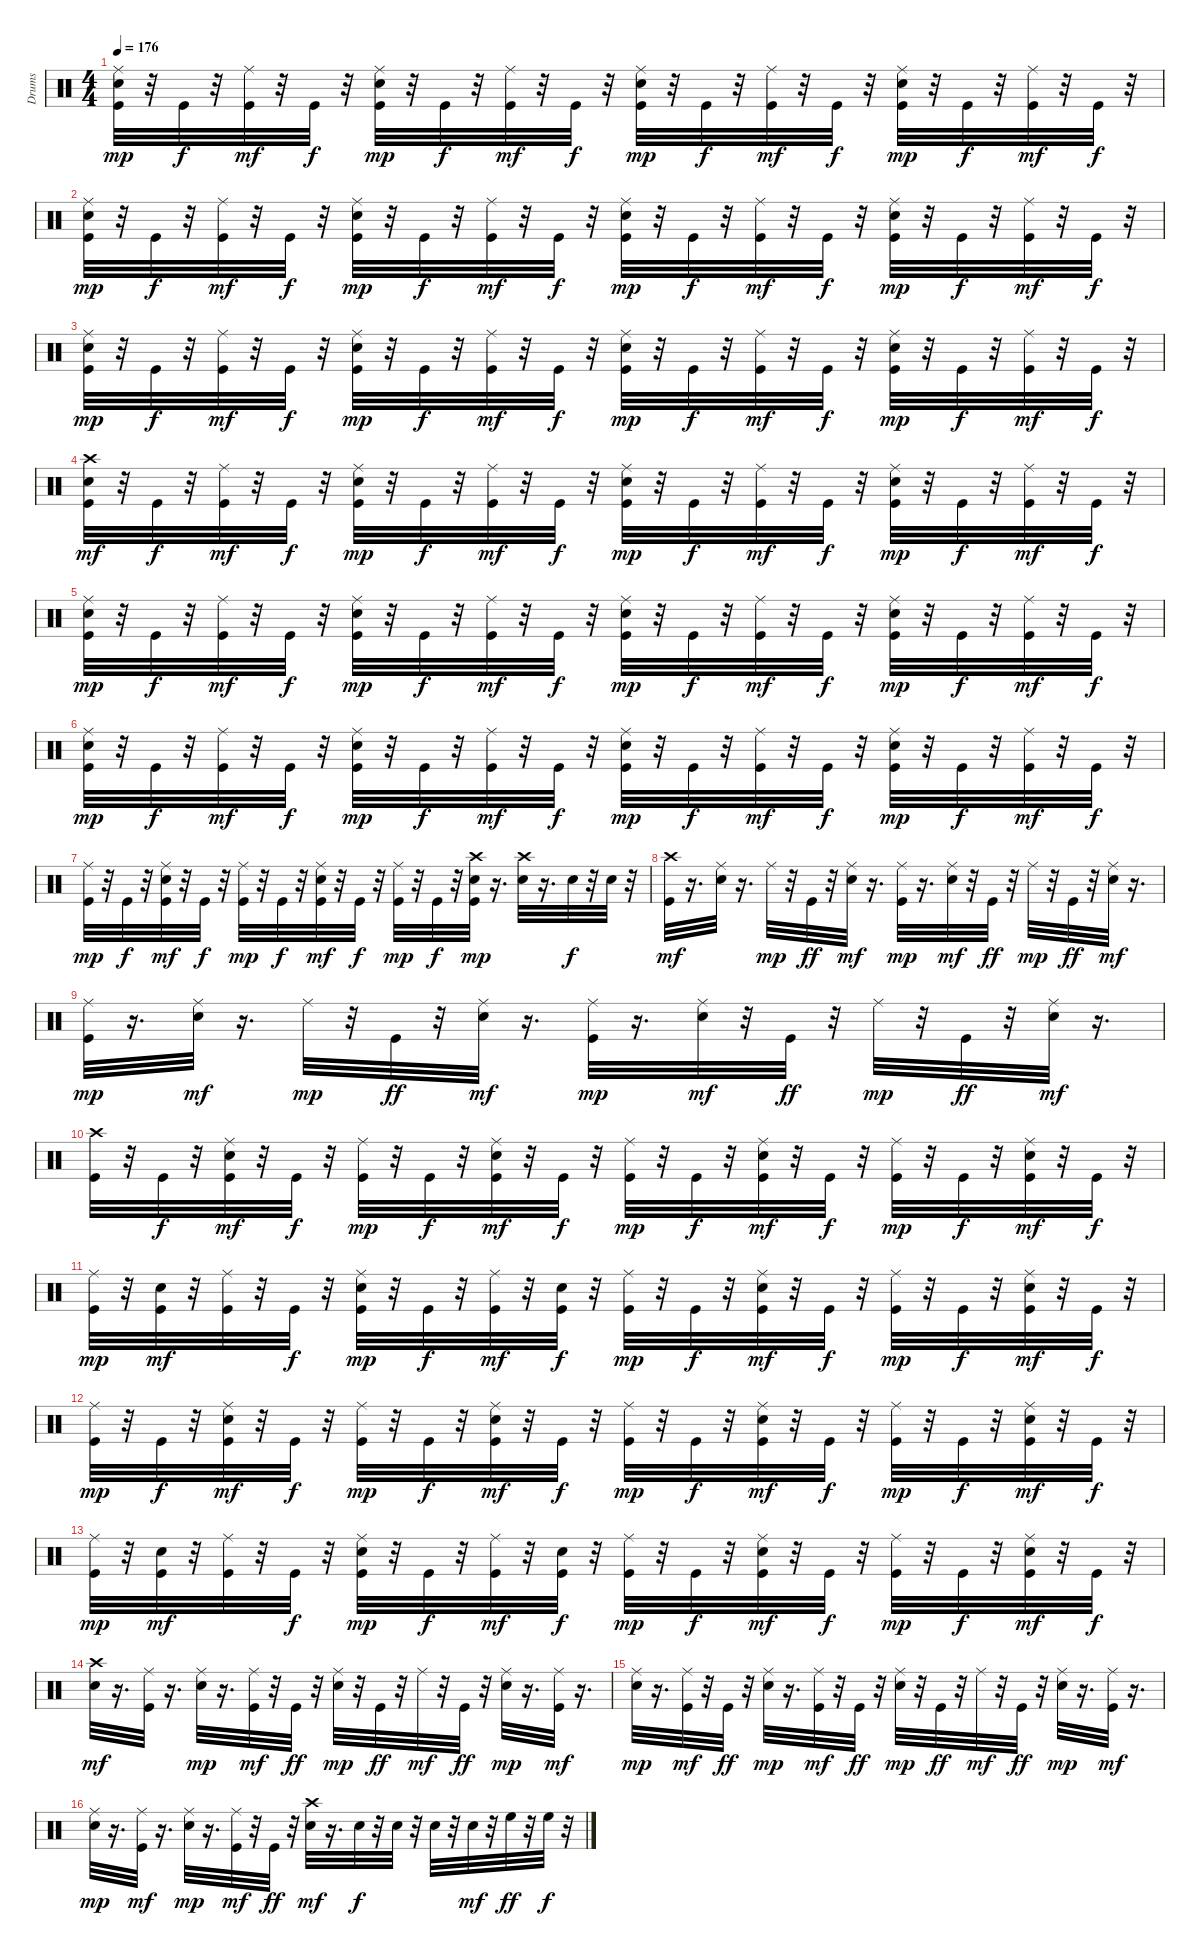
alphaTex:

\track ("Drums" "Drums") {instrument percussion}
\staff {score}
\articulation defaults
\ts (4 4)
\tempo 176
\clef neutral
\ks c
("Kick (hit)" "Snare (hit) 2" "Ride (middle)").32{dy mp} r.32 "Kick (hit)".32{dy f} r.32 ("Kick (hit)" "Ride (middle)").32{dy mf} r.32 "Kick (hit)".32{dy f} r.32 ("Kick (hit)" "Snare (hit) 2" "Ride (middle)").32{dy mp} r.32 "Kick (hit)".32{dy f} r.32 ("Kick (hit)" "Ride (middle)").32{dy mf} r.32 "Kick (hit)".32{dy f} r.32 ("Kick (hit)" "Snare (hit) 2" "Ride (middle)").32{dy mp} r.32 "Kick (hit)".32{dy f} r.32 ("Kick (hit)" "Ride (middle)").32{dy mf} r.32 "Kick (hit)".32{dy f} r.32 ("Kick (hit)" "Snare (hit) 2" "Ride (middle)").32{dy mp} r.32 "Kick (hit)".32{dy f} r.32 ("Kick (hit)" "Ride (middle)").32{dy mf} r.32 "Kick (hit)".32{dy f} r.32 |
("Kick (hit)" "Snare (hit) 2" "Ride (middle)").32{dy mp} r.32 "Kick (hit)".32{dy f} r.32 ("Kick (hit)" "Ride (middle)").32{dy mf} r.32 "Kick (hit)".32{dy f} r.32 ("Kick (hit)" "Snare (hit) 2" "Ride (middle)").32{dy mp} r.32 "Kick (hit)".32{dy f} r.32 ("Kick (hit)" "Ride (middle)").32{dy mf} r.32 "Kick (hit)".32{dy f} r.32 ("Kick (hit)" "Snare (hit) 2" "Ride (middle)").32{dy mp} r.32 "Kick (hit)".32{dy f} r.32 ("Kick (hit)" "Ride (middle)").32{dy mf} r.32 "Kick (hit)".32{dy f} r.32 ("Kick (hit)" "Snare (hit) 2" "Ride (middle)").32{dy mp} r.32 "Kick (hit)".32{dy f} r.32 ("Kick (hit)" "Ride (middle)").32{dy mf} r.32 "Kick (hit)".32{dy f} r.32 |
("Kick (hit)" "Snare (hit) 2" "Ride (middle)").32{dy mp} r.32 "Kick (hit)".32{dy f} r.32 ("Kick (hit)" "Ride (middle)").32{dy mf} r.32 "Kick (hit)".32{dy f} r.32 ("Kick (hit)" "Snare (hit) 2" "Ride (middle)").32{dy mp} r.32 "Kick (hit)".32{dy f} r.32 ("Kick (hit)" "Ride (middle)").32{dy mf} r.32 "Kick (hit)".32{dy f} r.32 ("Kick (hit)" "Snare (hit) 2" "Ride (middle)").32{dy mp} r.32 "Kick (hit)".32{dy f} r.32 ("Kick (hit)" "Ride (middle)").32{dy mf} r.32 "Kick (hit)".32{dy f} r.32 ("Kick (hit)" "Snare (hit) 2" "Ride (middle)").32{dy mp} r.32 "Kick (hit)".32{dy f} r.32 ("Kick (hit)" "Ride (middle)").32{dy mf} r.32 "Kick (hit)".32{dy f} r.32 |
("Kick (hit)" "Snare (hit) 2" "Crash high (hit)").32{dy mf} r.32 "Kick (hit)".32{dy f} r.32 ("Kick (hit)" "Ride (middle)").32{dy mf} r.32 "Kick (hit)".32{dy f} r.32 ("Kick (hit)" "Snare (hit) 2" "Ride (middle)").32{dy mp} r.32 "Kick (hit)".32{dy f} r.32 ("Kick (hit)" "Ride (middle)").32{dy mf} r.32 "Kick (hit)".32{dy f} r.32 ("Kick (hit)" "Snare (hit) 2" "Ride (middle)").32{dy mp} r.32 "Kick (hit)".32{dy f} r.32 ("Kick (hit)" "Ride (middle)").32{dy mf} r.32 "Kick (hit)".32{dy f} r.32 ("Kick (hit)" "Snare (hit) 2" "Ride (middle)").32{dy mp} r.32 "Kick (hit)".32{dy f} r.32 ("Kick (hit)" "Ride (middle)").32{dy mf} r.32 "Kick (hit)".32{dy f} r.32 |
("Kick (hit)" "Snare (hit) 2" "Ride (middle)").32{dy mp} r.32 "Kick (hit)".32{dy f} r.32 ("Kick (hit)" "Ride (middle)").32{dy mf} r.32 "Kick (hit)".32{dy f} r.32 ("Kick (hit)" "Snare (hit) 2" "Ride (middle)").32{dy mp} r.32 "Kick (hit)".32{dy f} r.32 ("Kick (hit)" "Ride (middle)").32{dy mf} r.32 "Kick (hit)".32{dy f} r.32 ("Kick (hit)" "Snare (hit) 2" "Ride (middle)").32{dy mp} r.32 "Kick (hit)".32{dy f} r.32 ("Kick (hit)" "Ride (middle)").32{dy mf} r.32 "Kick (hit)".32{dy f} r.32 ("Kick (hit)" "Snare (hit) 2" "Ride (middle)").32{dy mp} r.32 "Kick (hit)".32{dy f} r.32 ("Kick (hit)" "Ride (middle)").32{dy mf} r.32 "Kick (hit)".32{dy f} r.32 |
("Kick (hit)" "Snare (hit) 2" "Ride (middle)").32{dy mp} r.32 "Kick (hit)".32{dy f} r.32 ("Kick (hit)" "Ride (middle)").32{dy mf} r.32 "Kick (hit)".32{dy f} r.32 ("Kick (hit)" "Snare (hit) 2" "Ride (middle)").32{dy mp} r.32 "Kick (hit)".32{dy f} r.32 ("Kick (hit)" "Ride (middle)").32{dy mf} r.32 "Kick (hit)".32{dy f} r.32 ("Kick (hit)" "Snare (hit) 2" "Ride (middle)").32{dy mp} r.32 "Kick (hit)".32{dy f} r.32 ("Kick (hit)" "Ride (middle)").32{dy mf} r.32 "Kick (hit)".32{dy f} r.32 ("Kick (hit)" "Snare (hit) 2" "Ride (middle)").32{dy mp} r.32 "Kick (hit)".32{dy f} r.32 ("Kick (hit)" "Ride (middle)").32{dy mf} r.32 "Kick (hit)".32{dy f} r.32 |
("Kick (hit)" "Ride (middle)").32{dy mp} r.32 "Kick (hit)".32{dy f} r.32 ("Kick (hit)" "Snare (hit) 2" "Ride (middle)").32{dy mf} r.32 "Kick (hit)".32{dy f} r.32 ("Kick (hit)" "Ride (middle)").32{dy mp} r.32 "Kick (hit)".32{dy f} r.32 ("Kick (hit)" "Snare (hit) 2" "Ride (middle)").32{dy mf} r.32 "Kick (hit)".32{dy f} r.32 ("Kick (hit)" "Ride (middle)").32{dy mp} r.32 "Kick (hit)".32{dy f} r.32 ("Kick (hit)" "Snare (hit) 2" "Crash high (hit)").32{dy mp} r.16{d} ("Snare (hit) 2" "Crash high (hit)").32 r.16{d} "Snare (hit) 2".32{dy f} r.32 "Snare (hit) 2".32 r.32 |
("Kick (hit)" "Crash high (hit)").32{dy mf} r.16{d} ("Snare (hit) 2" "Ride (middle)").32 r.16{d} "Ride (middle)".32{dy mp} r.32 "Kick (hit)".32{dy ff} r.32 ("Snare (hit) 2" "Ride (middle)").32{dy mf} r.16{d} ("Kick (hit)" "Ride (middle)").32{dy mp} r.16{d} ("Snare (hit) 2" "Ride (middle)").32{dy mf} r.32 "Kick (hit)".32{dy ff} r.32 "Ride (middle)".32{dy mp} r.32 "Kick (hit)".32{dy ff} r.32 ("Snare (hit) 2" "Ride (middle)").32{dy mf} r.16{d} |
("Kick (hit)" "Ride (middle)").32{dy mp} r.16{d} ("Snare (hit) 2" "Ride (middle)").32{dy mf} r.16{d} "Ride (middle)".32{dy mp} r.32 "Kick (hit)".32{dy ff} r.32 ("Snare (hit) 2" "Ride (middle)").32{dy mf} r.16{d} ("Kick (hit)" "Ride (middle)").32{dy mp} r.16{d} ("Snare (hit) 2" "Ride (middle)").32{dy mf} r.32 "Kick (hit)".32{dy ff} r.32 "Ride (middle)".32{dy mp} r.32 "Kick (hit)".32{dy ff} r.32 ("Snare (hit) 2" "Ride (middle)").32{dy mf} r.16{d} |
("Kick (hit)" "Crash high (hit)").32 r.32 "Kick (hit)".32{dy f} r.32 ("Kick (hit)" "Snare (hit) 2" "Ride (middle)").32{dy mf} r.32 "Kick (hit)".32{dy f} r.32 ("Kick (hit)" "Ride (middle)").32{dy mp} r.32 "Kick (hit)".32{dy f} r.32 ("Kick (hit)" "Snare (hit) 2" "Ride (middle)").32{dy mf} r.32 "Kick (hit)".32{dy f} r.32 ("Kick (hit)" "Ride (middle)").32{dy mp} r.32 "Kick (hit)".32{dy f} r.32 ("Kick (hit)" "Snare (hit) 2" "Ride (middle)").32{dy mf} r.32 "Kick (hit)".32{dy f} r.32 ("Kick (hit)" "Ride (middle)").32{dy mp} r.32 "Kick (hit)".32{dy f} r.32 ("Kick (hit)" "Snare (hit) 2" "Ride (middle)").32{dy mf} r.32 "Kick (hit)".32{dy f} r.32 |
("Kick (hit)" "Ride (middle)").32{dy mp} r.32 ("Kick (hit)" "Snare (hit) 2").32{dy mf} r.32 ("Kick (hit)" "Ride (middle)").32 r.32 "Kick (hit)".32{dy f} r.32 ("Kick (hit)" "Snare (hit) 2" "Ride (middle)").32{dy mp} r.32 "Kick (hit)".32{dy f} r.32 ("Kick (hit)" "Ride (middle)").32{dy mf} r.32 ("Kick (hit)" "Snare (hit) 2").32{dy f} r.32 ("Kick (hit)" "Ride (middle)").32{dy mp} r.32 "Kick (hit)".32{dy f} r.32 ("Kick (hit)" "Snare (hit) 2" "Ride (middle)").32{dy mf} r.32 "Kick (hit)".32{dy f} r.32 ("Kick (hit)" "Ride (middle)").32{dy mp} r.32 "Kick (hit)".32{dy f} r.32 ("Kick (hit)" "Snare (hit) 2" "Ride (middle)").32{dy mf} r.32 "Kick (hit)".32{dy f} r.32 |
("Kick (hit)" "Ride (middle)").32{dy mp} r.32 "Kick (hit)".32{dy f} r.32 ("Kick (hit)" "Snare (hit) 2" "Ride (middle)").32{dy mf} r.32 "Kick (hit)".32{dy f} r.32 ("Kick (hit)" "Ride (middle)").32{dy mp} r.32 "Kick (hit)".32{dy f} r.32 ("Kick (hit)" "Snare (hit) 2" "Ride (middle)").32{dy mf} r.32 "Kick (hit)".32{dy f} r.32 ("Kick (hit)" "Ride (middle)").32{dy mp} r.32 "Kick (hit)".32{dy f} r.32 ("Kick (hit)" "Snare (hit) 2" "Ride (middle)").32{dy mf} r.32 "Kick (hit)".32{dy f} r.32 ("Kick (hit)" "Ride (middle)").32{dy mp} r.32 "Kick (hit)".32{dy f} r.32 ("Kick (hit)" "Snare (hit) 2" "Ride (middle)").32{dy mf} r.32 "Kick (hit)".32{dy f} r.32 |
("Kick (hit)" "Ride (middle)").32{dy mp} r.32 ("Kick (hit)" "Snare (hit) 2").32{dy mf} r.32 ("Kick (hit)" "Ride (middle)").32 r.32 "Kick (hit)".32{dy f} r.32 ("Kick (hit)" "Snare (hit) 2" "Ride (middle)").32{dy mp} r.32 "Kick (hit)".32{dy f} r.32 ("Kick (hit)" "Ride (middle)").32{dy mf} r.32 ("Kick (hit)" "Snare (hit) 2").32{dy f} r.32 ("Kick (hit)" "Ride (middle)").32{dy mp} r.32 "Kick (hit)".32{dy f} r.32 ("Kick (hit)" "Snare (hit) 2" "Ride (middle)").32{dy mf} r.32 "Kick (hit)".32{dy f} r.32 ("Kick (hit)" "Ride (middle)").32{dy mp} r.32 "Kick (hit)".32{dy f} r.32 ("Kick (hit)" "Snare (hit) 2" "Ride (middle)").32{dy mf} r.32 "Kick (hit)".32{dy f} r.32 |
("Snare (hit) 2" "Crash high (hit)").32{dy mf} r.16{d} ("Kick (hit)" "Ride (middle)").32 r.16{d} ("Snare (hit) 2" "Ride (middle)").32{dy mp} r.16{d} ("Kick (hit)" "Ride (middle)").32{dy mf} r.32 "Kick (hit)".32{dy ff} r.32 ("Snare (hit) 2" "Ride (middle)").32{dy mp} r.32 "Kick (hit)".32{dy ff} r.32 "Ride (middle)".32{dy mf} r.32 "Kick (hit)".32{dy ff} r.32 ("Snare (hit) 2" "Ride (middle)").32{dy mp} r.16{d} ("Kick (hit)" "Ride (middle)").32{dy mf} r.16{d} |
("Snare (hit) 2" "Ride (middle)").32{dy mp} r.16{d} ("Kick (hit)" "Ride (middle)").32{dy mf} r.32 "Kick (hit)".32{dy ff} r.32 ("Snare (hit) 2" "Ride (middle)").32{dy mp} r.16{d} ("Kick (hit)" "Ride (middle)").32{dy mf} r.32 "Kick (hit)".32{dy ff} r.32 ("Snare (hit) 2" "Ride (middle)").32{dy mp} r.32 "Kick (hit)".32{dy ff} r.32 "Ride (middle)".32{dy mf} r.32 "Kick (hit)".32{dy ff} r.32 ("Snare (hit) 2" "Ride (middle)").32{dy mp} r.16{d} ("Kick (hit)" "Ride (middle)").32{dy mf} r.16{d} |
("Snare (hit) 2" "Ride (middle)").32{dy mp} r.16{d} ("Kick (hit)" "Ride (middle)").32{dy mf} r.16{d} ("Snare (hit) 2" "Ride (middle)").32{dy mp} r.16{d} ("Kick (hit)" "Ride (middle)").32{dy mf} r.32 "Kick (hit)".32{dy ff} r.32 ("Snare (hit) 2" "Crash high (hit)").32{dy mf} r.16{d} "Snare (hit) 2".32{dy f} r.32 "Snare (hit) 2".32 r.32 "Snare (hit) 2".32 r.32 "Snare (hit) 2".32{dy mf} r.32 "High Floor Tom (hit)".32{dy ff} r.32 "High Floor Tom (hit)".32{dy f} r.32
